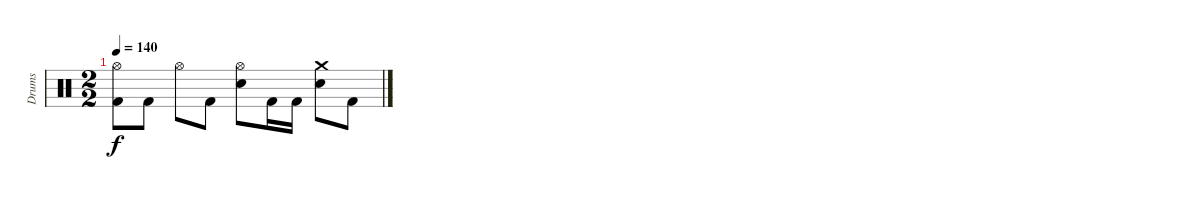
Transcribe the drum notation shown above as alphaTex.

\track ("Drums" "Drums") {instrument percussion}
\staff {score}
\articulation defaults
\ts (2 2)
\tempo 140
\clef neutral
\ks c
("Hi-Hat (open)" "Kick (hit) 2").8{dy f} "Kick (hit) 2".8 "Hi-Hat (open)".8 "Kick (hit) 2".8 ("Hi-Hat (open)" "Snare (hit) 2").8 "Kick (hit) 2".16 "Kick (hit) 2".16 ("Crash medium (hit)" "Snare (hit) 2").8 "Kick (hit) 2".8
